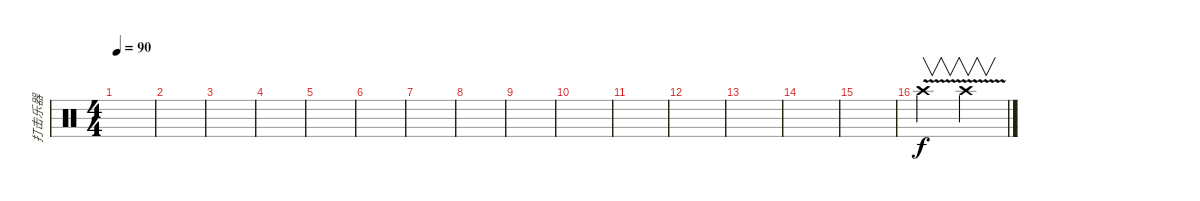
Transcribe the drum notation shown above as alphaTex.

\track ("打击乐器" "打击乐器") {instrument percussion}
\staff {score}
\articulation defaults
\ts (4 4)
\tempo 90
\clef neutral
\ks c
|
|
|
|
|
|
|
|
|
|
|
|
|
|
|
"Crash high (hit)"{v}.2{v} "Crash high (hit)"{v}.2{v}
